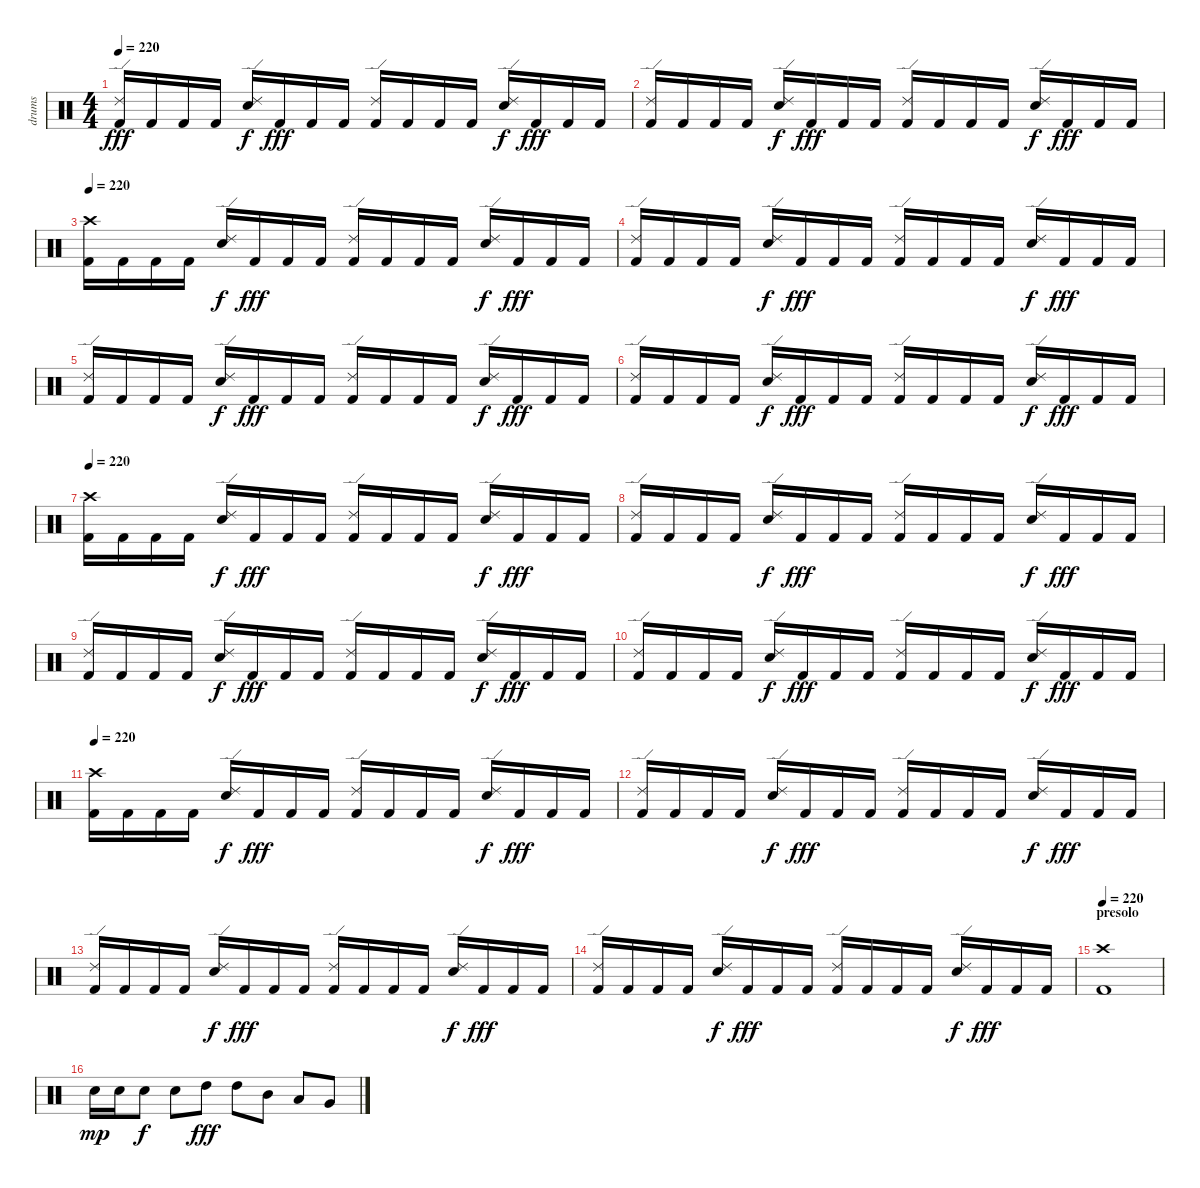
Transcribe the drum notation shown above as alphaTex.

\track ("drums" "drums") {instrument percussion}
\staff {score}
\articulation defaults
\ts (4 4)
\tempo 220
\clef neutral
\ks c
("Ride (edge) 2" "Kick (hit) 2").16{dy fff} "Kick (hit) 2".16 "Kick (hit) 2".16 "Kick (hit) 2".16 ("Ride (edge) 2" "Snare (hit) 2").16{dy f} "Kick (hit) 2".16{dy fff} "Kick (hit) 2".16 "Kick (hit) 2".16 ("Ride (edge) 2" "Kick (hit) 2").16 "Kick (hit) 2".16 "Kick (hit) 2".16 "Kick (hit) 2".16 ("Ride (edge) 2" "Snare (hit) 2").16{dy f} "Kick (hit) 2".16{dy fff} "Kick (hit) 2".16 "Kick (hit) 2".16 |
("Ride (edge) 2" "Kick (hit) 2").16 "Kick (hit) 2".16 "Kick (hit) 2".16 "Kick (hit) 2".16 ("Ride (edge) 2" "Snare (hit) 2").16{dy f} "Kick (hit) 2".16{dy fff} "Kick (hit) 2".16 "Kick (hit) 2".16 ("Ride (edge) 2" "Kick (hit) 2").16 "Kick (hit) 2".16 "Kick (hit) 2".16 "Kick (hit) 2".16 ("Ride (edge) 2" "Snare (hit) 2").16{dy f} "Kick (hit) 2".16{dy fff} "Kick (hit) 2".16 "Kick (hit) 2".16 |
\tempo 220
("Crash high (hit)" "Kick (hit) 2").16 "Kick (hit) 2".16 "Kick (hit) 2".16 "Kick (hit) 2".16 ("Ride (edge) 2" "Snare (hit) 2").16{dy f} "Kick (hit) 2".16{dy fff} "Kick (hit) 2".16 "Kick (hit) 2".16 ("Ride (edge) 2" "Kick (hit) 2").16 "Kick (hit) 2".16 "Kick (hit) 2".16 "Kick (hit) 2".16 ("Ride (edge) 2" "Snare (hit) 2").16{dy f} "Kick (hit) 2".16{dy fff} "Kick (hit) 2".16 "Kick (hit) 2".16 |
("Ride (edge) 2" "Kick (hit) 2").16 "Kick (hit) 2".16 "Kick (hit) 2".16 "Kick (hit) 2".16 ("Ride (edge) 2" "Snare (hit) 2").16{dy f} "Kick (hit) 2".16{dy fff} "Kick (hit) 2".16 "Kick (hit) 2".16 ("Ride (edge) 2" "Kick (hit) 2").16 "Kick (hit) 2".16 "Kick (hit) 2".16 "Kick (hit) 2".16 ("Ride (edge) 2" "Snare (hit) 2").16{dy f} "Kick (hit) 2".16{dy fff} "Kick (hit) 2".16 "Kick (hit) 2".16 |
("Ride (edge) 2" "Kick (hit) 2").16 "Kick (hit) 2".16 "Kick (hit) 2".16 "Kick (hit) 2".16 ("Ride (edge) 2" "Snare (hit) 2").16{dy f} "Kick (hit) 2".16{dy fff} "Kick (hit) 2".16 "Kick (hit) 2".16 ("Ride (edge) 2" "Kick (hit) 2").16 "Kick (hit) 2".16 "Kick (hit) 2".16 "Kick (hit) 2".16 ("Ride (edge) 2" "Snare (hit) 2").16{dy f} "Kick (hit) 2".16{dy fff} "Kick (hit) 2".16 "Kick (hit) 2".16 |
("Ride (edge) 2" "Kick (hit) 2").16 "Kick (hit) 2".16 "Kick (hit) 2".16 "Kick (hit) 2".16 ("Ride (edge) 2" "Snare (hit) 2").16{dy f} "Kick (hit) 2".16{dy fff} "Kick (hit) 2".16 "Kick (hit) 2".16 ("Ride (edge) 2" "Kick (hit) 2").16 "Kick (hit) 2".16 "Kick (hit) 2".16 "Kick (hit) 2".16 ("Ride (edge) 2" "Snare (hit) 2").16{dy f} "Kick (hit) 2".16{dy fff} "Kick (hit) 2".16 "Kick (hit) 2".16 |
\tempo 220
("Crash high (hit)" "Kick (hit) 2").16 "Kick (hit) 2".16 "Kick (hit) 2".16 "Kick (hit) 2".16 ("Ride (edge) 2" "Snare (hit) 2").16{dy f} "Kick (hit) 2".16{dy fff} "Kick (hit) 2".16 "Kick (hit) 2".16 ("Ride (edge) 2" "Kick (hit) 2").16 "Kick (hit) 2".16 "Kick (hit) 2".16 "Kick (hit) 2".16 ("Ride (edge) 2" "Snare (hit) 2").16{dy f} "Kick (hit) 2".16{dy fff} "Kick (hit) 2".16 "Kick (hit) 2".16 |
("Ride (edge) 2" "Kick (hit) 2").16 "Kick (hit) 2".16 "Kick (hit) 2".16 "Kick (hit) 2".16 ("Ride (edge) 2" "Snare (hit) 2").16{dy f} "Kick (hit) 2".16{dy fff} "Kick (hit) 2".16 "Kick (hit) 2".16 ("Ride (edge) 2" "Kick (hit) 2").16 "Kick (hit) 2".16 "Kick (hit) 2".16 "Kick (hit) 2".16 ("Ride (edge) 2" "Snare (hit) 2").16{dy f} "Kick (hit) 2".16{dy fff} "Kick (hit) 2".16 "Kick (hit) 2".16 |
("Ride (edge) 2" "Kick (hit) 2").16 "Kick (hit) 2".16 "Kick (hit) 2".16 "Kick (hit) 2".16 ("Ride (edge) 2" "Snare (hit) 2").16{dy f} "Kick (hit) 2".16{dy fff} "Kick (hit) 2".16 "Kick (hit) 2".16 ("Ride (edge) 2" "Kick (hit) 2").16 "Kick (hit) 2".16 "Kick (hit) 2".16 "Kick (hit) 2".16 ("Ride (edge) 2" "Snare (hit) 2").16{dy f} "Kick (hit) 2".16{dy fff} "Kick (hit) 2".16 "Kick (hit) 2".16 |
("Ride (edge) 2" "Kick (hit) 2").16 "Kick (hit) 2".16 "Kick (hit) 2".16 "Kick (hit) 2".16 ("Ride (edge) 2" "Snare (hit) 2").16{dy f} "Kick (hit) 2".16{dy fff} "Kick (hit) 2".16 "Kick (hit) 2".16 ("Ride (edge) 2" "Kick (hit) 2").16 "Kick (hit) 2".16 "Kick (hit) 2".16 "Kick (hit) 2".16 ("Ride (edge) 2" "Snare (hit) 2").16{dy f} "Kick (hit) 2".16{dy fff} "Kick (hit) 2".16 "Kick (hit) 2".16 |
\tempo 220
("Crash high (hit)" "Kick (hit) 2").16 "Kick (hit) 2".16 "Kick (hit) 2".16 "Kick (hit) 2".16 ("Ride (edge) 2" "Snare (hit) 2").16{dy f} "Kick (hit) 2".16{dy fff} "Kick (hit) 2".16 "Kick (hit) 2".16 ("Ride (edge) 2" "Kick (hit) 2").16 "Kick (hit) 2".16 "Kick (hit) 2".16 "Kick (hit) 2".16 ("Ride (edge) 2" "Snare (hit) 2").16{dy f} "Kick (hit) 2".16{dy fff} "Kick (hit) 2".16 "Kick (hit) 2".16 |
("Ride (edge) 2" "Kick (hit) 2").16 "Kick (hit) 2".16 "Kick (hit) 2".16 "Kick (hit) 2".16 ("Ride (edge) 2" "Snare (hit) 2").16{dy f} "Kick (hit) 2".16{dy fff} "Kick (hit) 2".16 "Kick (hit) 2".16 ("Ride (edge) 2" "Kick (hit) 2").16 "Kick (hit) 2".16 "Kick (hit) 2".16 "Kick (hit) 2".16 ("Ride (edge) 2" "Snare (hit) 2").16{dy f} "Kick (hit) 2".16{dy fff} "Kick (hit) 2".16 "Kick (hit) 2".16 |
("Ride (edge) 2" "Kick (hit) 2").16 "Kick (hit) 2".16 "Kick (hit) 2".16 "Kick (hit) 2".16 ("Ride (edge) 2" "Snare (hit) 2").16{dy f} "Kick (hit) 2".16{dy fff} "Kick (hit) 2".16 "Kick (hit) 2".16 ("Ride (edge) 2" "Kick (hit) 2").16 "Kick (hit) 2".16 "Kick (hit) 2".16 "Kick (hit) 2".16 ("Ride (edge) 2" "Snare (hit) 2").16{dy f} "Kick (hit) 2".16{dy fff} "Kick (hit) 2".16 "Kick (hit) 2".16 |
("Ride (edge) 2" "Kick (hit) 2").16 "Kick (hit) 2".16 "Kick (hit) 2".16 "Kick (hit) 2".16 ("Ride (edge) 2" "Snare (hit) 2").16{dy f} "Kick (hit) 2".16{dy fff} "Kick (hit) 2".16 "Kick (hit) 2".16 ("Ride (edge) 2" "Kick (hit) 2").16 "Kick (hit) 2".16 "Kick (hit) 2".16 "Kick (hit) 2".16 ("Ride (edge) 2" "Snare (hit) 2").16{dy f} "Kick (hit) 2".16{dy fff} "Kick (hit) 2".16 "Kick (hit) 2".16 |
\section ("" "presolo")
\tempo 220
("Crash high (hit)" "Kick (hit) 2").1 |
"Snare (hit) 2".16{dy mp} "Snare (hit) 2".16 "Snare (hit) 2".8{dy f} "Snare (hit) 2".8 "High Tom (hit)".8{dy fff} "High Tom (hit)".8 "Mid Tom (hit)".8 "Low Tom (hit)".8 "Very Low Tom (hit)".8
